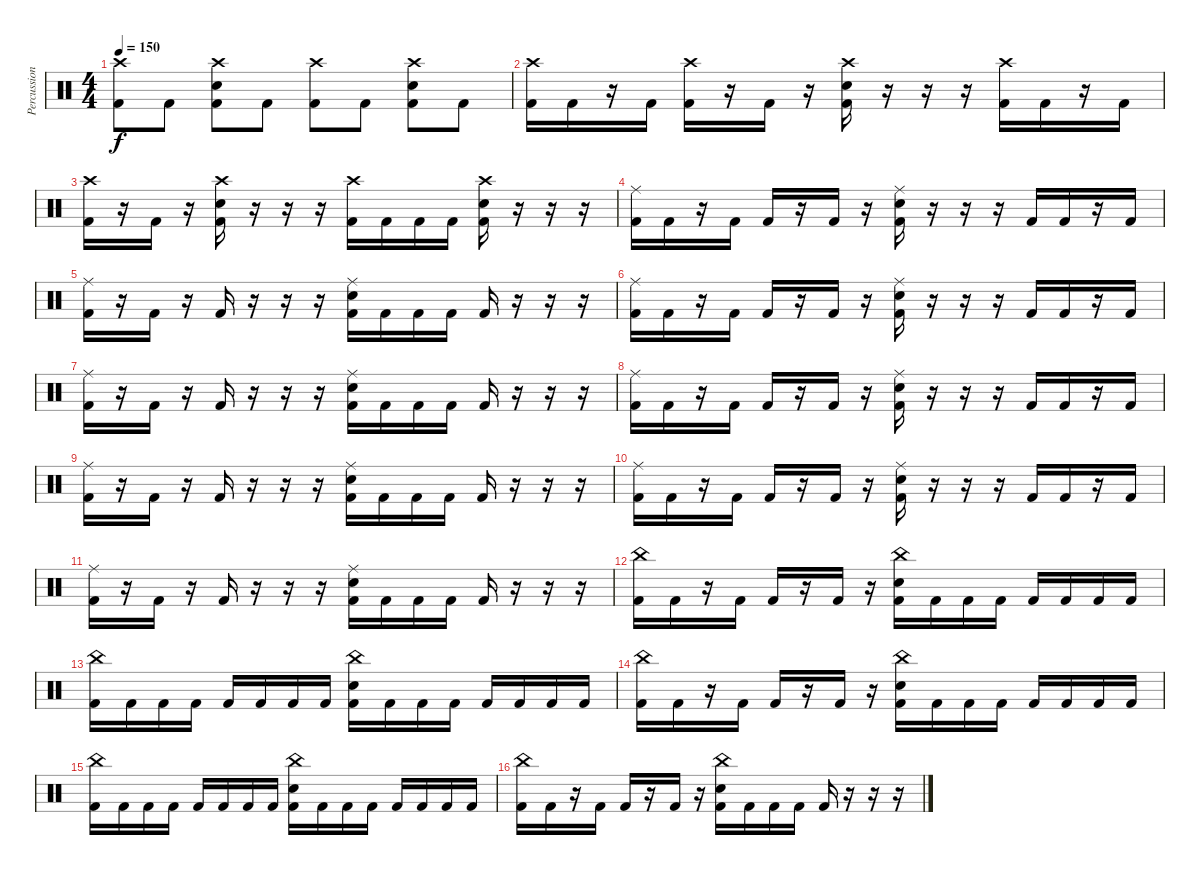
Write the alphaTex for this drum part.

\track ("Percussion" "Percussion") {instrument percussion}
\staff {score}
\articulation defaults
\ts (4 4)
\tempo 150
\clef neutral
\ks c
("Crash high (hit)" "Kick (hit) 2").8{dy f} "Kick (hit) 2".8 ("Crash high (hit)" "Snare (hit) 2" "Kick (hit) 2").8 "Kick (hit) 2".8 ("Crash high (hit)" "Kick (hit) 2").8 "Kick (hit) 2".8 ("Crash high (hit)" "Snare (hit) 2" "Kick (hit) 2").8 "Kick (hit) 2".8 |
("Crash high (hit)" "Kick (hit) 2").16 "Kick (hit) 2".16 r.16 "Kick (hit) 2".16 ("Crash high (hit)" "Kick (hit) 2").16 r.16 "Kick (hit) 2".16 r.16 ("Crash high (hit)" "Snare (hit) 2" "Kick (hit) 2").16 r.16 r.16 r.16 ("Crash high (hit)" "Kick (hit) 2").16 "Kick (hit) 2".16 r.16 "Kick (hit) 2".16 |
("Crash high (hit)" "Kick (hit) 2").16 r.16 "Kick (hit) 2".16 r.16 ("Crash high (hit)" "Snare (hit) 2" "Kick (hit) 2").16 r.16 r.16 r.16 ("Crash high (hit)" "Kick (hit) 2").16 "Kick (hit) 2".16 "Kick (hit) 2".16 "Kick (hit) 2".16 ("Crash high (hit)" "Snare (hit) 2" "Kick (hit) 2").16 r.16 r.16 r.16 |
("Ride (middle)" "Kick (hit) 2").16 "Kick (hit) 2".16 r.16 "Kick (hit) 2".16 "Kick (hit) 2".16 r.16 "Kick (hit) 2".16 r.16 ("Ride (middle)" "Snare (hit) 2" "Kick (hit) 2").16 r.16 r.16 r.16 "Kick (hit) 2".16 "Kick (hit) 2".16 r.16 "Kick (hit) 2".16 |
("Ride (middle)" "Kick (hit) 2").16 r.16 "Kick (hit) 2".16 r.16 "Kick (hit) 2".16 r.16 r.16 r.16 ("Ride (middle)" "Snare (hit) 2" "Kick (hit) 2").16 "Kick (hit) 2".16 "Kick (hit) 2".16 "Kick (hit) 2".16 "Kick (hit) 2".16 r.16 r.16 r.16 |
("Ride (middle)" "Kick (hit) 2").16 "Kick (hit) 2".16 r.16 "Kick (hit) 2".16 "Kick (hit) 2".16 r.16 "Kick (hit) 2".16 r.16 ("Ride (middle)" "Snare (hit) 2" "Kick (hit) 2").16 r.16 r.16 r.16 "Kick (hit) 2".16 "Kick (hit) 2".16 r.16 "Kick (hit) 2".16 |
("Ride (middle)" "Kick (hit) 2").16 r.16 "Kick (hit) 2".16 r.16 "Kick (hit) 2".16 r.16 r.16 r.16 ("Ride (middle)" "Snare (hit) 2" "Kick (hit) 2").16 "Kick (hit) 2".16 "Kick (hit) 2".16 "Kick (hit) 2".16 "Kick (hit) 2".16 r.16 r.16 r.16 |
("Ride (middle)" "Kick (hit) 2").16 "Kick (hit) 2".16 r.16 "Kick (hit) 2".16 "Kick (hit) 2".16 r.16 "Kick (hit) 2".16 r.16 ("Ride (middle)" "Snare (hit) 2" "Kick (hit) 2").16 r.16 r.16 r.16 "Kick (hit) 2".16 "Kick (hit) 2".16 r.16 "Kick (hit) 2".16 |
("Ride (middle)" "Kick (hit) 2").16 r.16 "Kick (hit) 2".16 r.16 "Kick (hit) 2".16 r.16 r.16 r.16 ("Ride (middle)" "Snare (hit) 2" "Kick (hit) 2").16 "Kick (hit) 2".16 "Kick (hit) 2".16 "Kick (hit) 2".16 "Kick (hit) 2".16 r.16 r.16 r.16 |
("Ride (middle)" "Kick (hit) 2").16 "Kick (hit) 2".16 r.16 "Kick (hit) 2".16 "Kick (hit) 2".16 r.16 "Kick (hit) 2".16 r.16 ("Ride (middle)" "Snare (hit) 2" "Kick (hit) 2").16 r.16 r.16 r.16 "Kick (hit) 2".16 "Kick (hit) 2".16 r.16 "Kick (hit) 2".16 |
("Ride (middle)" "Kick (hit) 2").16 r.16 "Kick (hit) 2".16 r.16 "Kick (hit) 2".16 r.16 r.16 r.16 ("Ride (middle)" "Snare (hit) 2" "Kick (hit) 2").16 "Kick (hit) 2".16 "Kick (hit) 2".16 "Kick (hit) 2".16 "Kick (hit) 2".16 r.16 r.16 r.16 |
("China (hit)" "Kick (hit) 2").16 "Kick (hit) 2".16 r.16 "Kick (hit) 2".16 "Kick (hit) 2".16 r.16 "Kick (hit) 2".16 r.16 ("China (hit)" "Snare (hit) 2" "Kick (hit) 2").16 "Kick (hit) 2".16 "Kick (hit) 2".16 "Kick (hit) 2".16 "Kick (hit) 2".16 "Kick (hit) 2".16 "Kick (hit) 2".16 "Kick (hit) 2".16 |
("China (hit)" "Kick (hit) 2").16 "Kick (hit) 2".16 "Kick (hit) 2".16 "Kick (hit) 2".16 "Kick (hit) 2".16 "Kick (hit) 2".16 "Kick (hit) 2".16 "Kick (hit) 2".16 ("China (hit)" "Snare (hit) 2" "Kick (hit) 2").16 "Kick (hit) 2".16 "Kick (hit) 2".16 "Kick (hit) 2".16 "Kick (hit) 2".16 "Kick (hit) 2".16 "Kick (hit) 2".16 "Kick (hit) 2".16 |
("China (hit)" "Kick (hit) 2").16 "Kick (hit) 2".16 r.16 "Kick (hit) 2".16 "Kick (hit) 2".16 r.16 "Kick (hit) 2".16 r.16 ("China (hit)" "Snare (hit) 2" "Kick (hit) 2").16 "Kick (hit) 2".16 "Kick (hit) 2".16 "Kick (hit) 2".16 "Kick (hit) 2".16 "Kick (hit) 2".16 "Kick (hit) 2".16 "Kick (hit) 2".16 |
("China (hit)" "Kick (hit) 2").16 "Kick (hit) 2".16 "Kick (hit) 2".16 "Kick (hit) 2".16 "Kick (hit) 2".16 "Kick (hit) 2".16 "Kick (hit) 2".16 "Kick (hit) 2".16 ("China (hit)" "Snare (hit) 2" "Kick (hit) 2").16 "Kick (hit) 2".16 "Kick (hit) 2".16 "Kick (hit) 2".16 "Kick (hit) 2".16 "Kick (hit) 2".16 "Kick (hit) 2".16 "Kick (hit) 2".16 |
("China (hit)" "Kick (hit) 2").16 "Kick (hit) 2".16 r.16 "Kick (hit) 2".16 "Kick (hit) 2".16 r.16 "Kick (hit) 2".16 r.16 ("China (hit)" "Snare (hit) 2" "Kick (hit) 2").16 "Kick (hit) 2".16 "Kick (hit) 2".16 "Kick (hit) 2".16 "Kick (hit) 2".16 r.16 r.16 r.16
